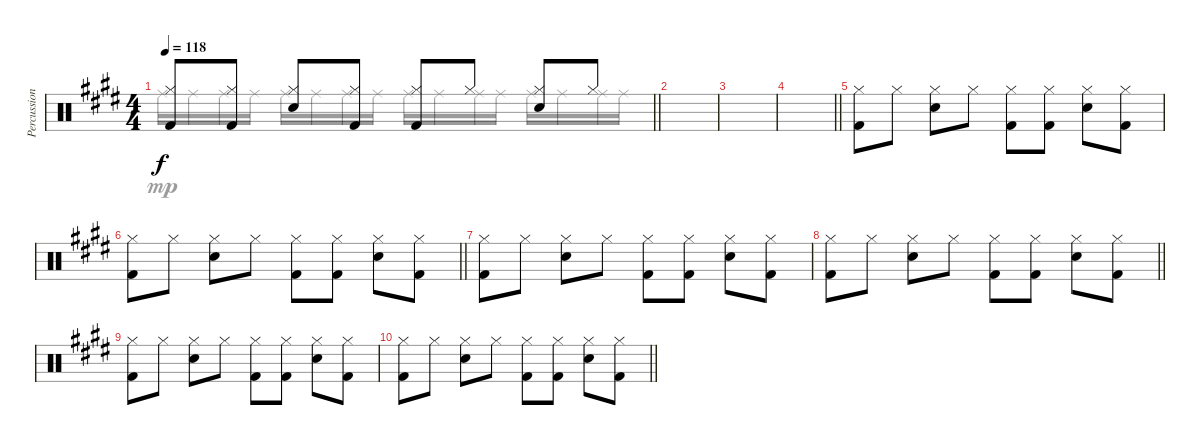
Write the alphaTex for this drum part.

\track ("Percussion" "Percussion") {instrument percussion}
\staff {score}
\articulation defaults
\voice
\ts (4 4)
\tempo 118
\clef neutral
\barLineRight lightlight
\ks e
("Hi-Hat (closed)" "Kick (hit) 2").8{dy f} ("Hi-Hat (closed)" "Kick (hit) 2").8 ("Hi-Hat (closed)" "Snare (hit) 2").8 ("Hi-Hat (closed)" "Kick (hit) 2").8 ("Hi-Hat (closed)" "Kick (hit) 2").8 "Hi-Hat (closed)".8 ("Hi-Hat (closed)" "Snare (hit) 2").8 "Hi-Hat (closed)".8 |
|
|
\barLineRight lightlight
|
("Hi-Hat (closed)" "Kick (hit) 2").8 "Hi-Hat (closed)".8 ("Hi-Hat (closed)" "Snare (hit) 2").8 "Hi-Hat (closed)".8 ("Hi-Hat (closed)" "Kick (hit) 2").8 ("Hi-Hat (closed)" "Kick (hit) 2").8 ("Hi-Hat (closed)" "Snare (hit) 2").8 ("Hi-Hat (closed)" "Kick (hit) 2").8 |
\barLineRight lightlight
("Hi-Hat (closed)" "Kick (hit) 2").8 "Hi-Hat (closed)".8 ("Hi-Hat (closed)" "Snare (hit) 2").8 "Hi-Hat (closed)".8 ("Hi-Hat (closed)" "Kick (hit) 2").8 ("Hi-Hat (closed)" "Kick (hit) 2").8 ("Hi-Hat (closed)" "Snare (hit) 2").8 ("Hi-Hat (closed)" "Kick (hit) 2").8 |
("Hi-Hat (closed)" "Kick (hit) 2").8 "Hi-Hat (closed)".8 ("Hi-Hat (closed)" "Snare (hit) 2").8 "Hi-Hat (closed)".8 ("Hi-Hat (closed)" "Kick (hit) 2").8 ("Hi-Hat (closed)" "Kick (hit) 2").8 ("Hi-Hat (closed)" "Snare (hit) 2").8 ("Hi-Hat (closed)" "Kick (hit) 2").8 |
\barLineRight lightlight
("Hi-Hat (closed)" "Kick (hit) 2").8 "Hi-Hat (closed)".8 ("Hi-Hat (closed)" "Snare (hit) 2").8 "Hi-Hat (closed)".8 ("Hi-Hat (closed)" "Kick (hit) 2").8 ("Hi-Hat (closed)" "Kick (hit) 2").8 ("Hi-Hat (closed)" "Snare (hit) 2").8 ("Hi-Hat (closed)" "Kick (hit) 2").8 |
("Hi-Hat (closed)" "Kick (hit) 2").8 "Hi-Hat (closed)".8 ("Hi-Hat (closed)" "Snare (hit) 2").8 "Hi-Hat (closed)".8 ("Hi-Hat (closed)" "Kick (hit) 2").8 ("Hi-Hat (closed)" "Kick (hit) 2").8 ("Hi-Hat (closed)" "Snare (hit) 2").8 ("Hi-Hat (closed)" "Kick (hit) 2").8 |
\barLineRight lightlight
("Hi-Hat (closed)" "Kick (hit) 2").8 "Hi-Hat (closed)".8 ("Hi-Hat (closed)" "Snare (hit) 2").8 "Hi-Hat (closed)".8 ("Hi-Hat (closed)" "Kick (hit) 2").8 ("Hi-Hat (closed)" "Kick (hit) 2").8 ("Hi-Hat (closed)" "Snare (hit) 2").8 ("Hi-Hat (closed)" "Kick (hit) 2").8
\voice
\clef neutral
\ottava regular
\simile none
\barLineRight lightlight
\ks e "Ride (middle)".16{dy mp} "Ride (middle)".16 "Ride (middle)".16 "Ride (middle)".16 "Ride (middle)".16 "Ride (middle)".16 "Ride (middle)".16 "Ride (middle)".16 "Ride (middle)".16 "Ride (middle)".16 "Ride (middle)".16 "Ride (middle)".16 "Ride (middle)".16 "Ride (middle)".16 "Ride (middle)".16 "Ride (middle)".16
|
|
|
\barLineRight lightlight
|
|
\barLineRight lightlight
|
|
\barLineRight lightlight
|
|
\barLineRight lightlight
